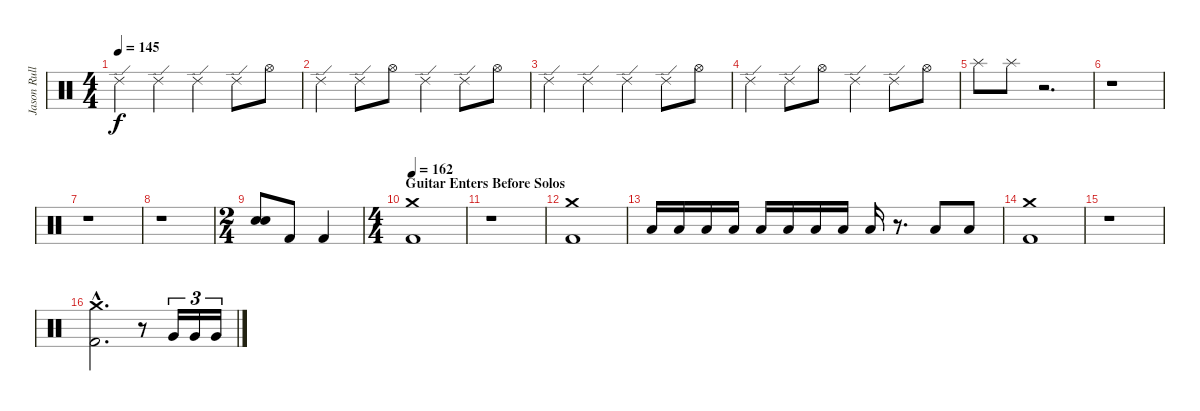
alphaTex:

\track ("Jason Rullo" "Jason Rull") {instrument percussion}
\staff {score}
\articulation defaults
\ts (4 4)
\tempo 145
\clef neutral
\ks c "Ride (edge) 2".4{dy f} "Ride (edge) 2".4 "Ride (edge) 2".4 "Ride (edge) 2".8 "Hi-Hat (open)".8
|
"Ride (edge) 2".4 "Ride (edge) 2".8 "Hi-Hat (open)".8 "Ride (edge) 2".4 "Ride (edge) 2".8 "Hi-Hat (open)".8 |
"Ride (edge) 2".4 "Ride (edge) 2".4 "Ride (edge) 2".4 "Ride (edge) 2".8 "Hi-Hat (open)".8 |
"Ride (edge) 2".4 "Ride (edge) 2".8 "Hi-Hat (open)".8 "Ride (edge) 2".4 "Ride (edge) 2".8 "Hi-Hat (open)".8 |
"Splash (hit)".8 "Splash (hit)".8 r.2{d} |
r.1 |
r.1 |
r.1 |
\ts (2 4)
("Electric Snare (hit)" "Electric Snare (hit)").8 "Kick (hit) 2".8 "Kick (hit) 2".4 |
\ts (4 4)
\section ("" "Guitar Enters Before Solos")
\tempo 162
("Crash medium (hit)" "Kick (hit) 2").1 |
r.1 |
("Crash medium (hit)" "Kick (hit) 2").1 |
"Low Floor Tom (hit)".16{volume 0} "Low Floor Tom (hit)".16{volume 2} "Low Floor Tom (hit)".16{volume 4} "Low Floor Tom (hit)".16{volume 5} "Low Floor Tom (hit)".16{volume 7} "Low Floor Tom (hit)".16{volume 9} "Low Floor Tom (hit)".16{volume 11} "Low Floor Tom (hit)".16{volume 12} "Low Floor Tom (hit)".16{volume 14} r.8{d} "Low Floor Tom (hit)".8{volume 16} "Low Floor Tom (hit)".8 |
("Crash medium (hit)" "Kick (hit) 2").1 |
r.1 |
("Crash medium (hit)"{hac} "Kick (hit) 2"{hac}).2{d} r.8 "Very Low Tom (hit)".16{tu (3 2)} "Very Low Tom (hit)".16{tu (3 2)} "Very Low Tom (hit)".16{tu (3 2)}
